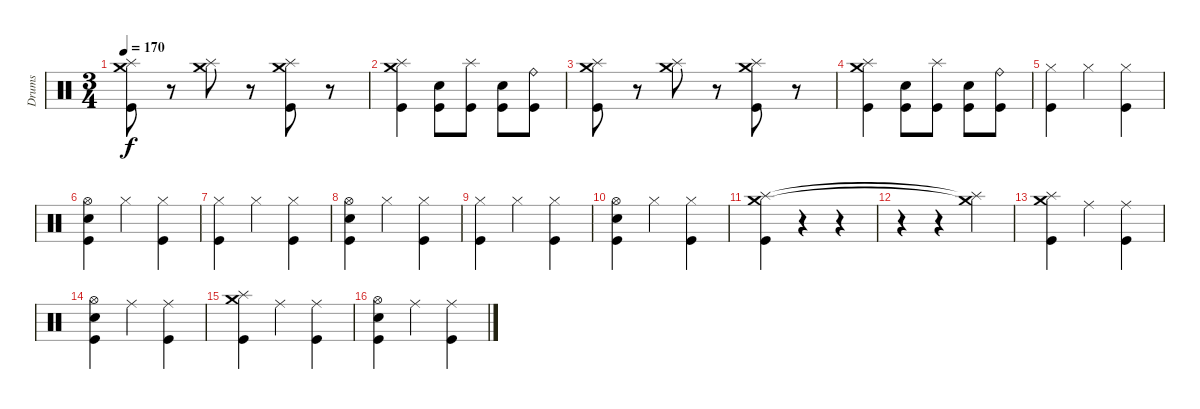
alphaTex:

\track ("Drums" "Drums") {instrument percussion}
\staff {score}
\articulation defaults
\ts (3 4)
\tempo 170
\clef neutral
\ks c
("Splash (hit)" "Crash medium (hit)" "Kick (hit)").8{dy f} r.8 ("Splash (hit)" "Crash medium (hit)").8 r.8 ("Splash (hit)" "Crash medium (hit)" "Kick (hit)").8 r.8 |
("Splash (hit)" "Crash medium (hit)" "Kick (hit)").4 ("Electric Snare (hit)" "Kick (hit)").8 ("Splash (hit)" "Kick (hit)").8 ("Electric Snare (hit)" "Kick (hit)").8 ("Ride (bell)" "Kick (hit)").8 |
("Splash (hit)" "Crash medium (hit)" "Kick (hit)").8 r.8 ("Splash (hit)" "Crash medium (hit)").8 r.8 ("Splash (hit)" "Crash medium (hit)" "Kick (hit)").8 r.8 |
("Splash (hit)" "Crash medium (hit)" "Kick (hit)").4 ("Electric Snare (hit)" "Kick (hit)").8 ("Splash (hit)" "Kick (hit)").8 ("Electric Snare (hit)" "Kick (hit)").8 ("Ride (bell)" "Kick (hit)").8 |
("Hi-Hat (closed)" "Kick (hit)").4 "Hi-Hat (closed)".4 ("Hi-Hat (closed)" "Kick (hit)").4 |
("Hi-Hat (open)" "Electric Snare (hit)" "Kick (hit)").4 "Hi-Hat (closed)".4 ("Hi-Hat (closed)" "Kick (hit)").4 |
("Hi-Hat (closed)" "Kick (hit)").4 "Hi-Hat (closed)".4 ("Hi-Hat (closed)" "Kick (hit)").4 |
("Hi-Hat (open)" "Electric Snare (hit)" "Kick (hit)").4 "Hi-Hat (closed)".4 ("Hi-Hat (closed)" "Kick (hit)").4 |
("Hi-Hat (closed)" "Kick (hit)").4 "Hi-Hat (closed)".4 ("Hi-Hat (closed)" "Kick (hit)").4 |
("Hi-Hat (open)" "Electric Snare (hit)" "Kick (hit)").4 "Hi-Hat (closed)".4 ("Hi-Hat (closed)" "Kick (hit)").4 |
("Splash (hit)" "Crash medium (hit)" "Kick (hit)").4 r.4 r.4 |
r.4 r.4 ("Splash (hit)"{t} "Crash medium (hit)"{t}).4 |
("Splash (hit)" "Crash medium (hit)" "Kick (hit)").4 "Ride (middle)".4 ("Ride (middle)" "Kick (hit)").4 |
("Hi-Hat (open)" "Electric Snare (hit)" "Kick (hit)").4 "Ride (middle)".4 ("Ride (middle)" "Kick (hit)").4 |
("Splash (hit)" "Crash medium (hit)" "Kick (hit)").4 "Ride (middle)".4 ("Ride (middle)" "Kick (hit)").4 |
("Hi-Hat (open)" "Electric Snare (hit)" "Kick (hit)").4 "Ride (middle)".4 ("Ride (middle)" "Kick (hit)").4
